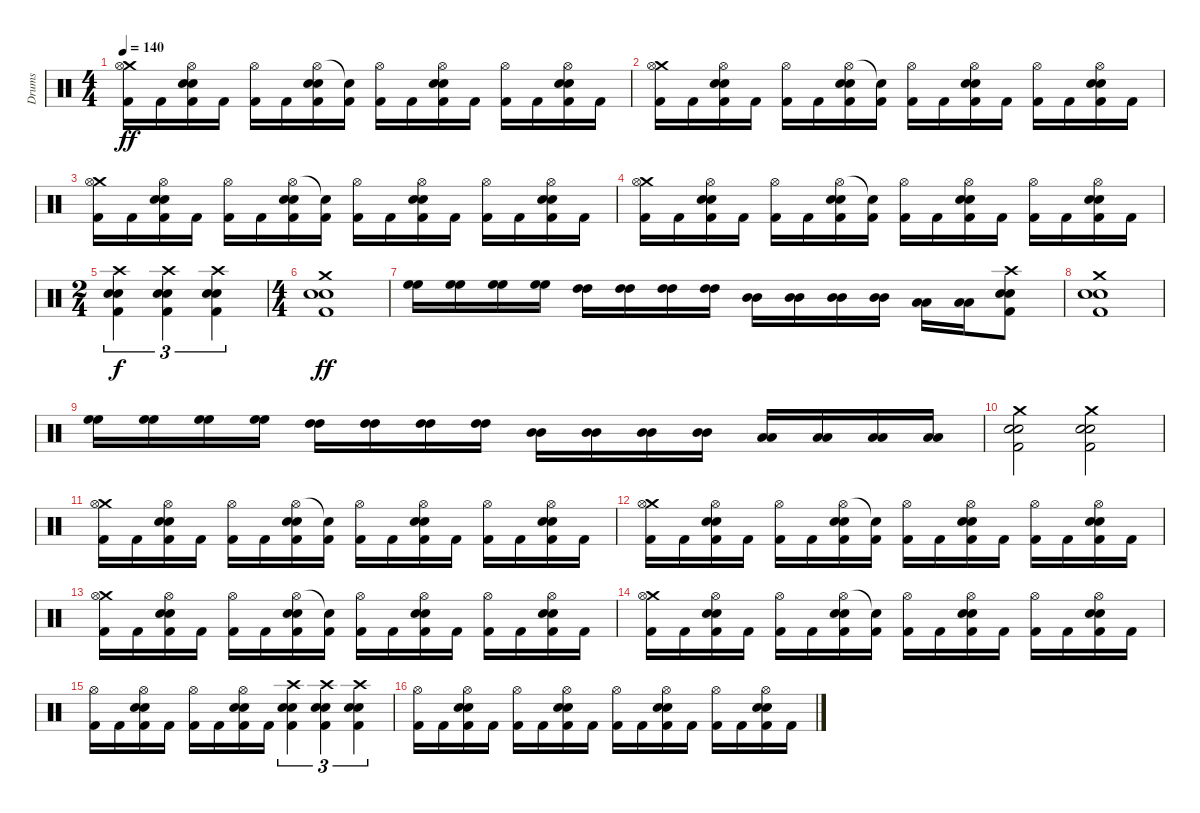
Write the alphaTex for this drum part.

\track ("Drums" "Drums") {instrument percussion}
\staff {score}
\articulation defaults
\ts (4 4)
\tempo 140
\clef neutral
\ks c
("Crash medium (hit)" "Hi-Hat (open)" "Kick (hit) 2").16{dy ff} "Kick (hit) 2".16 ("Hi-Hat (open)" "Electric Snare (hit)" "Electric Snare (hit)" "Kick (hit) 2").16 "Kick (hit) 2".16 ("Hi-Hat (open)" "Kick (hit) 2").16 "Kick (hit) 2".16 ("Hi-Hat (open)" "Electric Snare (hit)" "Electric Snare (hit)" "Kick (hit) 2").16 ("Snare (hit)"{t} "Kick (hit) 2").16 ("Hi-Hat (open)" "Kick (hit) 2").16 "Kick (hit) 2".16 ("Hi-Hat (open)" "Electric Snare (hit)" "Electric Snare (hit)" "Kick (hit) 2").16 "Kick (hit) 2".16 ("Hi-Hat (open)" "Kick (hit) 2").16 "Kick (hit) 2".16 ("Hi-Hat (open)" "Electric Snare (hit)" "Electric Snare (hit)" "Kick (hit) 2").16 "Kick (hit) 2".16 |
("Crash medium (hit)" "Hi-Hat (open)" "Kick (hit) 2").16 "Kick (hit) 2".16 ("Hi-Hat (open)" "Electric Snare (hit)" "Electric Snare (hit)" "Kick (hit) 2").16 "Kick (hit) 2".16 ("Hi-Hat (open)" "Kick (hit) 2").16 "Kick (hit) 2".16 ("Hi-Hat (open)" "Electric Snare (hit)" "Electric Snare (hit)" "Kick (hit) 2").16 ("Snare (hit)"{t} "Kick (hit) 2").16 ("Hi-Hat (open)" "Kick (hit) 2").16 "Kick (hit) 2".16 ("Hi-Hat (open)" "Electric Snare (hit)" "Electric Snare (hit)" "Kick (hit) 2").16 "Kick (hit) 2".16 ("Hi-Hat (open)" "Kick (hit) 2").16 "Kick (hit) 2".16 ("Hi-Hat (open)" "Electric Snare (hit)" "Electric Snare (hit)" "Kick (hit) 2").16 "Kick (hit) 2".16 |
("Crash medium (hit)" "Hi-Hat (open)" "Kick (hit) 2").16 "Kick (hit) 2".16 ("Hi-Hat (open)" "Electric Snare (hit)" "Electric Snare (hit)" "Kick (hit) 2").16 "Kick (hit) 2".16 ("Hi-Hat (open)" "Kick (hit) 2").16 "Kick (hit) 2".16 ("Hi-Hat (open)" "Electric Snare (hit)" "Electric Snare (hit)" "Kick (hit) 2").16 ("Snare (hit)"{t} "Kick (hit) 2").16 ("Hi-Hat (open)" "Kick (hit) 2").16 "Kick (hit) 2".16 ("Hi-Hat (open)" "Electric Snare (hit)" "Electric Snare (hit)" "Kick (hit) 2").16 "Kick (hit) 2".16 ("Hi-Hat (open)" "Kick (hit) 2").16 "Kick (hit) 2".16 ("Hi-Hat (open)" "Electric Snare (hit)" "Electric Snare (hit)" "Kick (hit) 2").16 "Kick (hit) 2".16 |
("Crash medium (hit)" "Hi-Hat (open)" "Kick (hit) 2").16 "Kick (hit) 2".16 ("Hi-Hat (open)" "Electric Snare (hit)" "Electric Snare (hit)" "Kick (hit) 2").16 "Kick (hit) 2".16 ("Hi-Hat (open)" "Kick (hit) 2").16 "Kick (hit) 2".16 ("Hi-Hat (open)" "Electric Snare (hit)" "Electric Snare (hit)" "Kick (hit) 2").16 ("Snare (hit)"{t} "Kick (hit) 2").16 ("Hi-Hat (open)" "Kick (hit) 2").16 "Kick (hit) 2".16 ("Hi-Hat (open)" "Electric Snare (hit)" "Electric Snare (hit)" "Kick (hit) 2").16 "Kick (hit) 2".16 ("Hi-Hat (open)" "Kick (hit) 2").16 "Kick (hit) 2".16 ("Hi-Hat (open)" "Electric Snare (hit)" "Electric Snare (hit)" "Kick (hit) 2").16 "Kick (hit) 2".16 |
\ts (2 4)
("Crash high (hit)" "Electric Snare (hit)" "Electric Snare (hit)" "Kick (hit) 2").4{tu (3 2) dy f} ("Crash high (hit)" "Electric Snare (hit)" "Electric Snare (hit)" "Kick (hit) 2").4{tu (3 2)} ("Crash high (hit)" "Electric Snare (hit)" "Electric Snare (hit)" "Kick (hit) 2").4{tu (3 2)} |
\ts (4 4)
("Crash medium (hit)" "Electric Snare (hit)" "Electric Snare (hit)" "Kick (hit) 2").1{dy ff} |
("High Floor Tom (hit)" "High Floor Tom (hit)").16 ("High Floor Tom (hit)" "High Floor Tom (hit)").16 ("High Floor Tom (hit)" "High Floor Tom (hit)").16 ("High Floor Tom (hit)" "High Floor Tom (hit)").16 ("High Tom (hit)" "High Tom (hit)").16 ("High Tom (hit)" "High Tom (hit)").16 ("High Tom (hit)" "High Tom (hit)").16 ("High Tom (hit)" "High Tom (hit)").16 ("Mid Tom (hit)" "Mid Tom (hit)").16 ("Mid Tom (hit)" "Mid Tom (hit)").16 ("Mid Tom (hit)" "Mid Tom (hit)").16 ("Mid Tom (hit)" "Mid Tom (hit)").16 ("Low Tom (hit)" "Low Tom (hit)").16 ("Low Tom (hit)" "Low Tom (hit)").16 ("Crash high (hit)" "Electric Snare (hit)" "Electric Snare (hit)" "Kick (hit) 2").8 |
("Crash medium (hit)" "Electric Snare (hit)" "Electric Snare (hit)" "Kick (hit) 2").1 |
("High Floor Tom (hit)" "High Floor Tom (hit)").16 ("High Floor Tom (hit)" "High Floor Tom (hit)").16 ("High Floor Tom (hit)" "High Floor Tom (hit)").16 ("High Floor Tom (hit)" "High Floor Tom (hit)").16 ("High Tom (hit)" "High Tom (hit)").16 ("High Tom (hit)" "High Tom (hit)").16 ("High Tom (hit)" "High Tom (hit)").16 ("High Tom (hit)" "High Tom (hit)").16 ("Mid Tom (hit)" "Mid Tom (hit)").16 ("Mid Tom (hit)" "Mid Tom (hit)").16 ("Mid Tom (hit)" "Mid Tom (hit)").16 ("Mid Tom (hit)" "Mid Tom (hit)").16 ("Low Tom (hit)" "Low Tom (hit)").16 ("Low Tom (hit)" "Low Tom (hit)").16 ("Low Tom (hit)" "Low Tom (hit)").16 ("Low Tom (hit)" "Low Tom (hit)").16 |
("Crash medium (hit)" "Electric Snare (hit)" "Electric Snare (hit)" "Kick (hit) 2").2 ("Crash medium (hit)" "Electric Snare (hit)" "Electric Snare (hit)" "Kick (hit) 2").2 |
("Crash medium (hit)" "Hi-Hat (open)" "Kick (hit) 2").16 "Kick (hit) 2".16 ("Hi-Hat (open)" "Electric Snare (hit)" "Electric Snare (hit)" "Kick (hit) 2").16 "Kick (hit) 2".16 ("Hi-Hat (open)" "Kick (hit) 2").16 "Kick (hit) 2".16 ("Hi-Hat (open)" "Electric Snare (hit)" "Electric Snare (hit)" "Kick (hit) 2").16 ("Snare (hit)"{t} "Kick (hit) 2").16 ("Hi-Hat (open)" "Kick (hit) 2").16 "Kick (hit) 2".16 ("Hi-Hat (open)" "Electric Snare (hit)" "Electric Snare (hit)" "Kick (hit) 2").16 "Kick (hit) 2".16 ("Hi-Hat (open)" "Kick (hit) 2").16 "Kick (hit) 2".16 ("Hi-Hat (open)" "Electric Snare (hit)" "Electric Snare (hit)" "Kick (hit) 2").16 "Kick (hit) 2".16 |
("Crash medium (hit)" "Hi-Hat (open)" "Kick (hit) 2").16 "Kick (hit) 2".16 ("Hi-Hat (open)" "Electric Snare (hit)" "Electric Snare (hit)" "Kick (hit) 2").16 "Kick (hit) 2".16 ("Hi-Hat (open)" "Kick (hit) 2").16 "Kick (hit) 2".16 ("Hi-Hat (open)" "Electric Snare (hit)" "Electric Snare (hit)" "Kick (hit) 2").16 ("Snare (hit)"{t} "Kick (hit) 2").16 ("Hi-Hat (open)" "Kick (hit) 2").16 "Kick (hit) 2".16 ("Hi-Hat (open)" "Electric Snare (hit)" "Electric Snare (hit)" "Kick (hit) 2").16 "Kick (hit) 2".16 ("Hi-Hat (open)" "Kick (hit) 2").16 "Kick (hit) 2".16 ("Hi-Hat (open)" "Electric Snare (hit)" "Electric Snare (hit)" "Kick (hit) 2").16 "Kick (hit) 2".16 |
("Crash medium (hit)" "Hi-Hat (open)" "Kick (hit) 2").16 "Kick (hit) 2".16 ("Hi-Hat (open)" "Electric Snare (hit)" "Electric Snare (hit)" "Kick (hit) 2").16 "Kick (hit) 2".16 ("Hi-Hat (open)" "Kick (hit) 2").16 "Kick (hit) 2".16 ("Hi-Hat (open)" "Electric Snare (hit)" "Electric Snare (hit)" "Kick (hit) 2").16 ("Snare (hit)"{t} "Kick (hit) 2").16 ("Hi-Hat (open)" "Kick (hit) 2").16 "Kick (hit) 2".16 ("Hi-Hat (open)" "Electric Snare (hit)" "Electric Snare (hit)" "Kick (hit) 2").16 "Kick (hit) 2".16 ("Hi-Hat (open)" "Kick (hit) 2").16 "Kick (hit) 2".16 ("Hi-Hat (open)" "Electric Snare (hit)" "Electric Snare (hit)" "Kick (hit) 2").16 "Kick (hit) 2".16 |
("Crash medium (hit)" "Hi-Hat (open)" "Kick (hit) 2").16 "Kick (hit) 2".16 ("Hi-Hat (open)" "Electric Snare (hit)" "Electric Snare (hit)" "Kick (hit) 2").16 "Kick (hit) 2".16 ("Hi-Hat (open)" "Kick (hit) 2").16 "Kick (hit) 2".16 ("Hi-Hat (open)" "Electric Snare (hit)" "Electric Snare (hit)" "Kick (hit) 2").16 ("Snare (hit)"{t} "Kick (hit) 2").16 ("Hi-Hat (open)" "Kick (hit) 2").16 "Kick (hit) 2".16 ("Hi-Hat (open)" "Electric Snare (hit)" "Electric Snare (hit)" "Kick (hit) 2").16 "Kick (hit) 2".16 ("Hi-Hat (open)" "Kick (hit) 2").16 "Kick (hit) 2".16 ("Hi-Hat (open)" "Electric Snare (hit)" "Electric Snare (hit)" "Kick (hit) 2").16 "Kick (hit) 2".16 |
("Hi-Hat (open)" "Kick (hit) 2").16 "Kick (hit) 2".16 ("Hi-Hat (open)" "Electric Snare (hit)" "Electric Snare (hit)" "Kick (hit) 2").16 "Kick (hit) 2".16 ("Hi-Hat (open)" "Kick (hit) 2").16 "Kick (hit) 2".16 ("Hi-Hat (open)" "Electric Snare (hit)" "Electric Snare (hit)" "Kick (hit) 2").16 "Kick (hit) 2".16 ("Crash high (hit)" "Electric Snare (hit)" "Electric Snare (hit)" "Kick (hit) 2").4{tu (3 2)} ("Crash high (hit)" "Electric Snare (hit)" "Electric Snare (hit)" "Kick (hit) 2").4{tu (3 2)} ("Crash high (hit)" "Electric Snare (hit)" "Electric Snare (hit)" "Kick (hit) 2").4{tu (3 2)} |
("Hi-Hat (open)" "Kick (hit) 2").16 "Kick (hit) 2".16 ("Hi-Hat (open)" "Electric Snare (hit)" "Electric Snare (hit)" "Kick (hit) 2").16 "Kick (hit) 2".16 ("Hi-Hat (open)" "Kick (hit) 2").16 "Kick (hit) 2".16 ("Hi-Hat (open)" "Electric Snare (hit)" "Electric Snare (hit)" "Kick (hit) 2").16 "Kick (hit) 2".16 ("Hi-Hat (open)" "Kick (hit) 2").16 "Kick (hit) 2".16 ("Hi-Hat (open)" "Electric Snare (hit)" "Electric Snare (hit)" "Kick (hit) 2").16 "Kick (hit) 2".16 ("Hi-Hat (open)" "Kick (hit) 2").16 "Kick (hit) 2".16 ("Hi-Hat (open)" "Electric Snare (hit)" "Electric Snare (hit)" "Kick (hit) 2").16 "Kick (hit) 2".16
